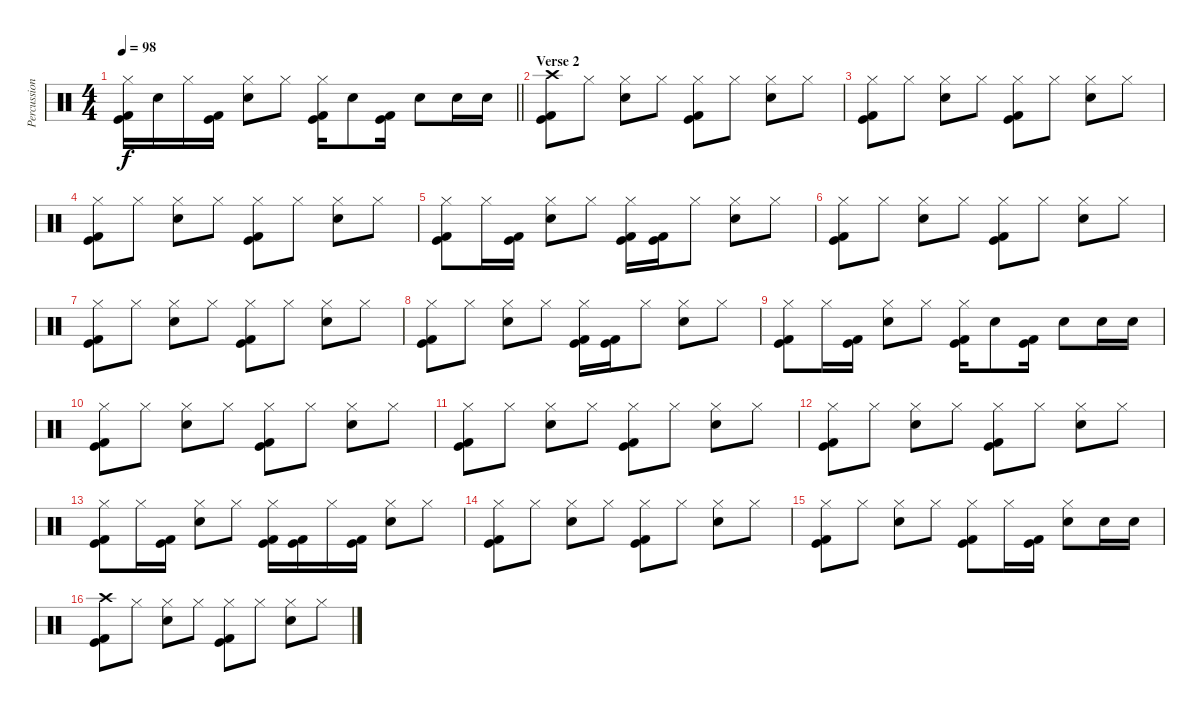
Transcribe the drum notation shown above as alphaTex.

\track ("Percussion" "Percussion") {instrument percussion}
\staff {score}
\articulation defaults
\ts (4 4)
\tempo 98
\clef neutral
\barLineRight lightlight
\ks c
("Hi-Hat (closed)" "Kick (hit)" "Kick (hit) 2").16{dy f} "Electric Snare (hit)".16 "Hi-Hat (closed)".16 ("Kick (hit)" "Kick (hit) 2").16 ("Hi-Hat (closed)" "Electric Snare (hit)").8 "Hi-Hat (closed)".8 ("Hi-Hat (closed)" "Kick (hit)" "Kick (hit) 2").16 "Electric Snare (hit)".8 ("Kick (hit)" "Kick (hit) 2").16 "Electric Snare (hit)".8 "Electric Snare (hit)".16 "Electric Snare (hit)".16 |
\section ("" "Verse 2")
("Crash high (hit)" "Kick (hit)" "Kick (hit) 2").8 "Hi-Hat (closed)".8 ("Hi-Hat (closed)" "Electric Snare (hit)").8 "Hi-Hat (closed)".8 ("Hi-Hat (closed)" "Kick (hit)" "Kick (hit) 2").8 "Hi-Hat (closed)".8 ("Hi-Hat (closed)" "Electric Snare (hit)").8 "Hi-Hat (closed)".8 |
("Hi-Hat (closed)" "Kick (hit)" "Kick (hit) 2").8 "Hi-Hat (closed)".8 ("Hi-Hat (closed)" "Electric Snare (hit)").8 "Hi-Hat (closed)".8 ("Hi-Hat (closed)" "Kick (hit)" "Kick (hit) 2").8 "Hi-Hat (closed)".8 ("Hi-Hat (closed)" "Electric Snare (hit)").8 "Hi-Hat (closed)".8 |
("Hi-Hat (closed)" "Kick (hit)" "Kick (hit) 2").8 "Hi-Hat (closed)".8 ("Hi-Hat (closed)" "Electric Snare (hit)").8 "Hi-Hat (closed)".8 ("Hi-Hat (closed)" "Kick (hit)" "Kick (hit) 2").8 "Hi-Hat (closed)".8 ("Hi-Hat (closed)" "Electric Snare (hit)").8 "Hi-Hat (closed)".8 |
("Hi-Hat (closed)" "Kick (hit)" "Kick (hit) 2").8 "Hi-Hat (closed)".16 ("Kick (hit)" "Kick (hit) 2").16 ("Hi-Hat (closed)" "Electric Snare (hit)").8 "Hi-Hat (closed)".8 ("Hi-Hat (closed)" "Kick (hit)" "Kick (hit) 2").16 ("Kick (hit)" "Kick (hit) 2").16 "Hi-Hat (closed)".8 ("Hi-Hat (closed)" "Electric Snare (hit)").8 "Hi-Hat (closed)".8 |
("Hi-Hat (closed)" "Kick (hit)" "Kick (hit) 2").8 "Hi-Hat (closed)".8 ("Hi-Hat (closed)" "Electric Snare (hit)").8 "Hi-Hat (closed)".8 ("Hi-Hat (closed)" "Kick (hit)" "Kick (hit) 2").8 "Hi-Hat (closed)".8 ("Hi-Hat (closed)" "Electric Snare (hit)").8 "Hi-Hat (closed)".8 |
("Hi-Hat (closed)" "Kick (hit)" "Kick (hit) 2").8 "Hi-Hat (closed)".8 ("Hi-Hat (closed)" "Electric Snare (hit)").8 "Hi-Hat (closed)".8 ("Hi-Hat (closed)" "Kick (hit)" "Kick (hit) 2").8 "Hi-Hat (closed)".8 ("Hi-Hat (closed)" "Electric Snare (hit)").8 "Hi-Hat (closed)".8 |
("Hi-Hat (closed)" "Kick (hit)" "Kick (hit) 2").8 "Hi-Hat (closed)".8 ("Hi-Hat (closed)" "Electric Snare (hit)").8 "Hi-Hat (closed)".8 ("Hi-Hat (closed)" "Kick (hit)" "Kick (hit) 2").16 ("Kick (hit)" "Kick (hit) 2").16 "Hi-Hat (closed)".8 ("Hi-Hat (closed)" "Electric Snare (hit)").8 "Hi-Hat (closed)".8 |
("Hi-Hat (closed)" "Kick (hit)" "Kick (hit) 2").8 "Hi-Hat (closed)".16 ("Kick (hit)" "Kick (hit) 2").16 ("Hi-Hat (closed)" "Electric Snare (hit)").8 "Hi-Hat (closed)".8 ("Hi-Hat (closed)" "Kick (hit)" "Kick (hit) 2").16 "Electric Snare (hit)".8 ("Kick (hit)" "Kick (hit) 2").16 "Electric Snare (hit)".8 "Electric Snare (hit)".16 "Electric Snare (hit)".16 |
("Hi-Hat (closed)" "Kick (hit)" "Kick (hit) 2").8 "Hi-Hat (closed)".8 ("Hi-Hat (closed)" "Electric Snare (hit)").8 "Hi-Hat (closed)".8 ("Hi-Hat (closed)" "Kick (hit)" "Kick (hit) 2").8 "Hi-Hat (closed)".8 ("Hi-Hat (closed)" "Electric Snare (hit)").8 "Hi-Hat (closed)".8 |
("Hi-Hat (closed)" "Kick (hit)" "Kick (hit) 2").8 "Hi-Hat (closed)".8 ("Hi-Hat (closed)" "Electric Snare (hit)").8 "Hi-Hat (closed)".8 ("Hi-Hat (closed)" "Kick (hit)" "Kick (hit) 2").8 "Hi-Hat (closed)".8 ("Hi-Hat (closed)" "Electric Snare (hit)").8 "Hi-Hat (closed)".8 |
("Hi-Hat (closed)" "Kick (hit)" "Kick (hit) 2").8 "Hi-Hat (closed)".8 ("Hi-Hat (closed)" "Electric Snare (hit)").8 "Hi-Hat (closed)".8 ("Hi-Hat (closed)" "Kick (hit)" "Kick (hit) 2").8 "Hi-Hat (closed)".8 ("Hi-Hat (closed)" "Electric Snare (hit)").8 "Hi-Hat (closed)".8 |
("Hi-Hat (closed)" "Kick (hit)" "Kick (hit) 2").8 "Hi-Hat (closed)".16 ("Kick (hit)" "Kick (hit) 2").16 ("Hi-Hat (closed)" "Electric Snare (hit)").8 "Hi-Hat (closed)".8 ("Hi-Hat (closed)" "Kick (hit)" "Kick (hit) 2").16 ("Kick (hit)" "Kick (hit) 2").16 "Hi-Hat (closed)".16 ("Kick (hit)" "Kick (hit) 2").16 ("Hi-Hat (closed)" "Electric Snare (hit)").8 "Hi-Hat (closed)".8 |
("Hi-Hat (closed)" "Kick (hit)" "Kick (hit) 2").8 "Hi-Hat (closed)".8 ("Hi-Hat (closed)" "Electric Snare (hit)").8 "Hi-Hat (closed)".8 ("Hi-Hat (closed)" "Kick (hit)" "Kick (hit) 2").8 "Hi-Hat (closed)".8 ("Hi-Hat (closed)" "Electric Snare (hit)").8 "Hi-Hat (closed)".8 |
("Hi-Hat (closed)" "Kick (hit)" "Kick (hit) 2").8 "Hi-Hat (closed)".8 ("Hi-Hat (closed)" "Electric Snare (hit)").8 "Hi-Hat (closed)".8 ("Hi-Hat (closed)" "Kick (hit)" "Kick (hit) 2").8 "Hi-Hat (closed)".16 ("Kick (hit)" "Kick (hit) 2").16 ("Hi-Hat (closed)" "Electric Snare (hit)").8 "Electric Snare (hit)".16 "Electric Snare (hit)".16 |
("Crash high (hit)" "Kick (hit)" "Kick (hit) 2").8 "Hi-Hat (closed)".8 ("Hi-Hat (closed)" "Electric Snare (hit)").8 "Hi-Hat (closed)".8 ("Hi-Hat (closed)" "Kick (hit)" "Kick (hit) 2").8 "Hi-Hat (closed)".8 ("Hi-Hat (closed)" "Electric Snare (hit)").8 "Hi-Hat (closed)".8
